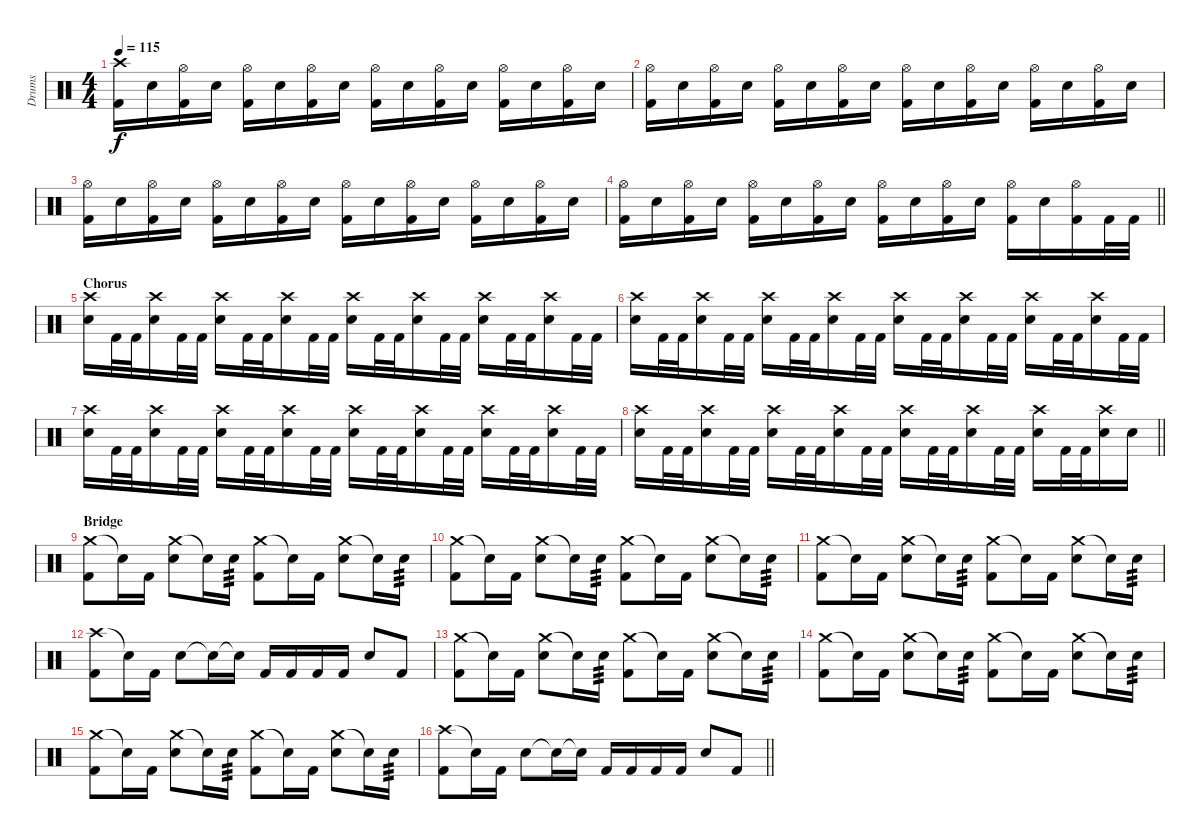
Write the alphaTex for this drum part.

\track ("Drums" "Drums") {instrument percussion}
\staff {score}
\articulation defaults
\ts (4 4)
\tempo 115
\clef neutral
\ks c
("Crash high (hit)" "Kick (hit) 2").16{dy f} "Electric Snare (hit)".16 ("Hi-Hat (open)" "Kick (hit) 2").16 "Electric Snare (hit)".16 ("Hi-Hat (open)" "Kick (hit) 2").16 "Electric Snare (hit)".16 ("Hi-Hat (open)" "Kick (hit) 2").16 "Electric Snare (hit)".16 ("Hi-Hat (open)" "Kick (hit) 2").16 "Electric Snare (hit)".16 ("Hi-Hat (open)" "Kick (hit) 2").16 "Electric Snare (hit)".16 ("Hi-Hat (open)" "Kick (hit) 2").16 "Electric Snare (hit)".16 ("Hi-Hat (open)" "Kick (hit) 2").16 "Electric Snare (hit)".16 |
("Hi-Hat (open)" "Kick (hit) 2").16 "Electric Snare (hit)".16 ("Hi-Hat (open)" "Kick (hit) 2").16 "Electric Snare (hit)".16 ("Hi-Hat (open)" "Kick (hit) 2").16 "Electric Snare (hit)".16 ("Hi-Hat (open)" "Kick (hit) 2").16 "Electric Snare (hit)".16 ("Hi-Hat (open)" "Kick (hit) 2").16 "Electric Snare (hit)".16 ("Hi-Hat (open)" "Kick (hit) 2").16 "Electric Snare (hit)".16 ("Hi-Hat (open)" "Kick (hit) 2").16 "Electric Snare (hit)".16 ("Hi-Hat (open)" "Kick (hit) 2").16 "Electric Snare (hit)".16 |
("Hi-Hat (open)" "Kick (hit) 2").16 "Electric Snare (hit)".16 ("Hi-Hat (open)" "Kick (hit) 2").16 "Electric Snare (hit)".16 ("Hi-Hat (open)" "Kick (hit) 2").16 "Electric Snare (hit)".16 ("Hi-Hat (open)" "Kick (hit) 2").16 "Electric Snare (hit)".16 ("Hi-Hat (open)" "Kick (hit) 2").16 "Electric Snare (hit)".16 ("Hi-Hat (open)" "Kick (hit) 2").16 "Electric Snare (hit)".16 ("Hi-Hat (open)" "Kick (hit) 2").16 "Electric Snare (hit)".16 ("Hi-Hat (open)" "Kick (hit) 2").16 "Electric Snare (hit)".16 |
\barLineRight lightlight
("Hi-Hat (open)" "Kick (hit) 2").16 "Electric Snare (hit)".16 ("Hi-Hat (open)" "Kick (hit) 2").16 "Electric Snare (hit)".16 ("Hi-Hat (open)" "Kick (hit) 2").16 "Electric Snare (hit)".16 ("Hi-Hat (open)" "Kick (hit) 2").16 "Electric Snare (hit)".16 ("Hi-Hat (open)" "Kick (hit) 2").16 "Electric Snare (hit)".16 ("Hi-Hat (open)" "Kick (hit) 2").16 "Electric Snare (hit)".16 ("Hi-Hat (open)" "Kick (hit) 2").16 "Electric Snare (hit)".16 ("Hi-Hat (open)" "Kick (hit) 2").16 "Kick (hit) 2".32 "Kick (hit) 2".32 |
\section ("" "Chorus")
("Crash high (hit)" "Electric Snare (hit)").16 "Kick (hit) 2".32 "Kick (hit) 2".32 ("Crash high (hit)" "Electric Snare (hit)").16 "Kick (hit) 2".32 "Kick (hit) 2".32 ("Crash high (hit)" "Electric Snare (hit)").16 "Kick (hit) 2".32 "Kick (hit) 2".32 ("Crash high (hit)" "Electric Snare (hit)").16 "Kick (hit) 2".32 "Kick (hit) 2".32 ("Crash high (hit)" "Electric Snare (hit)").16 "Kick (hit) 2".32 "Kick (hit) 2".32 ("Crash high (hit)" "Electric Snare (hit)").16 "Kick (hit) 2".32 "Kick (hit) 2".32 ("Crash high (hit)" "Electric Snare (hit)").16 "Kick (hit) 2".32 "Kick (hit) 2".32 ("Crash high (hit)" "Electric Snare (hit)").16 "Kick (hit) 2".32 "Kick (hit) 2".32 |
("Crash high (hit)" "Electric Snare (hit)").16 "Kick (hit) 2".32 "Kick (hit) 2".32 ("Crash high (hit)" "Electric Snare (hit)").16 "Kick (hit) 2".32 "Kick (hit) 2".32 ("Crash high (hit)" "Electric Snare (hit)").16 "Kick (hit) 2".32 "Kick (hit) 2".32 ("Crash high (hit)" "Electric Snare (hit)").16 "Kick (hit) 2".32 "Kick (hit) 2".32 ("Crash high (hit)" "Electric Snare (hit)").16 "Kick (hit) 2".32 "Kick (hit) 2".32 ("Crash high (hit)" "Electric Snare (hit)").16 "Kick (hit) 2".32 "Kick (hit) 2".32 ("Crash high (hit)" "Electric Snare (hit)").16 "Kick (hit) 2".32 "Kick (hit) 2".32 ("Crash high (hit)" "Electric Snare (hit)").16 "Kick (hit) 2".32 "Kick (hit) 2".32 |
("Crash high (hit)" "Electric Snare (hit)").16 "Kick (hit) 2".32 "Kick (hit) 2".32 ("Crash high (hit)" "Electric Snare (hit)").16 "Kick (hit) 2".32 "Kick (hit) 2".32 ("Crash high (hit)" "Electric Snare (hit)").16 "Kick (hit) 2".32 "Kick (hit) 2".32 ("Crash high (hit)" "Electric Snare (hit)").16 "Kick (hit) 2".32 "Kick (hit) 2".32 ("Crash high (hit)" "Electric Snare (hit)").16 "Kick (hit) 2".32 "Kick (hit) 2".32 ("Crash high (hit)" "Electric Snare (hit)").16 "Kick (hit) 2".32 "Kick (hit) 2".32 ("Crash high (hit)" "Electric Snare (hit)").16 "Kick (hit) 2".32 "Kick (hit) 2".32 ("Crash high (hit)" "Electric Snare (hit)").16 "Kick (hit) 2".32 "Kick (hit) 2".32 |
\barLineRight lightlight
("Crash high (hit)" "Electric Snare (hit)").16 "Kick (hit) 2".32 "Kick (hit) 2".32 ("Crash high (hit)" "Electric Snare (hit)").16 "Kick (hit) 2".32 "Kick (hit) 2".32 ("Crash high (hit)" "Electric Snare (hit)").16 "Kick (hit) 2".32 "Kick (hit) 2".32 ("Crash high (hit)" "Electric Snare (hit)").16 "Kick (hit) 2".32 "Kick (hit) 2".32 ("Crash high (hit)" "Electric Snare (hit)").16 "Kick (hit) 2".32 "Kick (hit) 2".32 ("Crash high (hit)" "Electric Snare (hit)").16 "Kick (hit) 2".32 "Kick (hit) 2".32 ("Crash high (hit)" "Electric Snare (hit)").16 "Kick (hit) 2".32 "Kick (hit) 2".32 ("Crash high (hit)" "Electric Snare (hit)").16 "Electric Snare (hit)".16 |
\section ("" "Bridge")
("Crash medium (hit)" "Kick (hit) 2").8 "Snare (hit)"{t}.16 "Kick (hit) 2".16 ("Crash medium (hit)" "Electric Snare (hit)").8 "Snare (hit)"{t}.16 "Electric Snare (hit)".16{tp 3} ("Crash medium (hit)" "Kick (hit) 2").8 "Snare (hit)"{t}.16 "Kick (hit) 2".16 ("Crash medium (hit)" "Electric Snare (hit)").8 "Snare (hit)"{t}.16 "Electric Snare (hit)".16{tp 3} |
("Crash medium (hit)" "Kick (hit) 2").8 "Snare (hit)"{t}.16 "Kick (hit) 2".16 ("Crash medium (hit)" "Electric Snare (hit)").8 "Snare (hit)"{t}.16 "Electric Snare (hit)".16{tp 3} ("Crash medium (hit)" "Kick (hit) 2").8 "Snare (hit)"{t}.16 "Kick (hit) 2".16 ("Crash medium (hit)" "Electric Snare (hit)").8 "Snare (hit)"{t}.16 "Electric Snare (hit)".16{tp 3} |
("Crash medium (hit)" "Kick (hit) 2").8 "Snare (hit)"{t}.16 "Kick (hit) 2".16 ("Crash medium (hit)" "Electric Snare (hit)").8 "Snare (hit)"{t}.16 "Electric Snare (hit)".16{tp 3} ("Crash medium (hit)" "Kick (hit) 2").8 "Snare (hit)"{t}.16 "Kick (hit) 2".16 ("Crash medium (hit)" "Electric Snare (hit)").8 "Snare (hit)"{t}.16 "Electric Snare (hit)".16{tp 3} |
("Crash high (hit)" "Kick (hit) 2").8 "Snare (hit)"{t}.16 "Kick (hit) 2".16 "Electric Snare (hit)".8 "Snare (hit)"{t}.16 "Snare (hit)"{t}.16 "Kick (hit) 2".16 "Kick (hit) 2".16 "Kick (hit) 2".16 "Kick (hit) 2".16 "Electric Snare (hit)".8 "Kick (hit) 2".8 |
("Crash medium (hit)" "Kick (hit) 2").8 "Snare (hit)"{t}.16 "Kick (hit) 2".16 ("Crash medium (hit)" "Electric Snare (hit)").8 "Snare (hit)"{t}.16 "Electric Snare (hit)".16{tp 3} ("Crash medium (hit)" "Kick (hit) 2").8 "Snare (hit)"{t}.16 "Kick (hit) 2".16 ("Crash medium (hit)" "Electric Snare (hit)").8 "Snare (hit)"{t}.16 "Electric Snare (hit)".16{tp 3} |
("Crash medium (hit)" "Kick (hit) 2").8 "Snare (hit)"{t}.16 "Kick (hit) 2".16 ("Crash medium (hit)" "Electric Snare (hit)").8 "Snare (hit)"{t}.16 "Electric Snare (hit)".16{tp 3} ("Crash medium (hit)" "Kick (hit) 2").8 "Snare (hit)"{t}.16 "Kick (hit) 2".16 ("Crash medium (hit)" "Electric Snare (hit)").8 "Snare (hit)"{t}.16 "Electric Snare (hit)".16{tp 3} |
("Crash medium (hit)" "Kick (hit) 2").8 "Snare (hit)"{t}.16 "Kick (hit) 2".16 ("Crash medium (hit)" "Electric Snare (hit)").8 "Snare (hit)"{t}.16 "Electric Snare (hit)".16{tp 3} ("Crash medium (hit)" "Kick (hit) 2").8 "Snare (hit)"{t}.16 "Kick (hit) 2".16 ("Crash medium (hit)" "Electric Snare (hit)").8 "Snare (hit)"{t}.16 "Electric Snare (hit)".16{tp 3} |
\barLineRight lightlight
("Crash high (hit)" "Kick (hit) 2").8 "Snare (hit)"{t}.16 "Kick (hit) 2".16 "Electric Snare (hit)".8 "Snare (hit)"{t}.16 "Snare (hit)"{t}.16 "Kick (hit) 2".16 "Kick (hit) 2".16 "Kick (hit) 2".16 "Kick (hit) 2".16 "Electric Snare (hit)".8 "Kick (hit) 2".8
